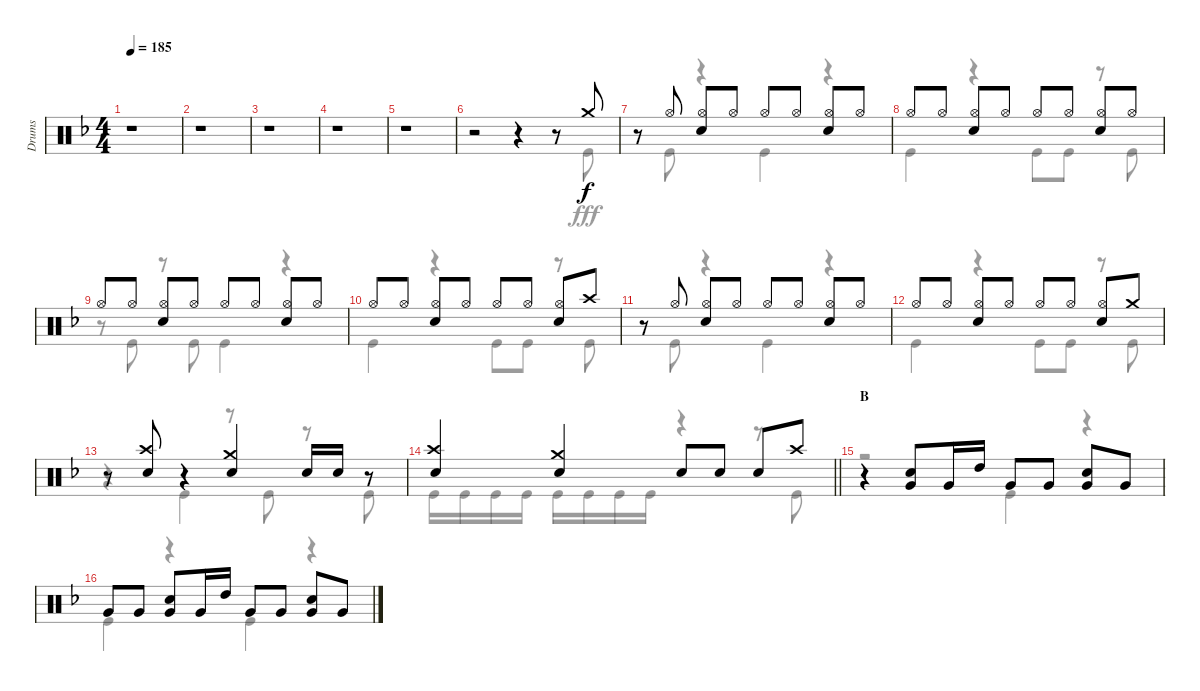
\track ("Drums" "Drums") {instrument percussion}
\staff {score}
\articulation defaults
\voice
\ts (4 4)
\tempo 185
\clef neutral
\ks f
r.1{dy f} |
r.1 |
r.1 |
r.1 |
r.1 |
r.2 r.4 r.8 "Crash medium (hit)".8 |
r.8 "Hi-Hat (open)".8 ("Hi-Hat (open)" "Snare (hit) 2").8 "Hi-Hat (open)".8 "Hi-Hat (open)".8 "Hi-Hat (open)".8 ("Hi-Hat (open)" "Snare (hit) 2").8 "Hi-Hat (open)".8 |
"Hi-Hat (open)".8 "Hi-Hat (open)".8 ("Hi-Hat (open)" "Snare (hit) 2").8 "Hi-Hat (open)".8 "Hi-Hat (open)".8 "Hi-Hat (open)".8 ("Hi-Hat (open)" "Snare (hit) 2").8 "Hi-Hat (open)".8 |
"Hi-Hat (open)".8 "Hi-Hat (open)".8 ("Hi-Hat (open)" "Snare (hit) 2").8 "Hi-Hat (open)".8 "Hi-Hat (open)".8 "Hi-Hat (open)".8 ("Hi-Hat (open)" "Snare (hit) 2").8 "Hi-Hat (open)".8 |
"Hi-Hat (open)".8 "Hi-Hat (open)".8 ("Hi-Hat (open)" "Snare (hit) 2").8 "Hi-Hat (open)".8 "Hi-Hat (open)".8 "Hi-Hat (open)".8 ("Hi-Hat (open)" "Snare (hit) 2").8 "Crash high (hit)".8 |
r.8 "Hi-Hat (open)".8 ("Hi-Hat (open)" "Snare (hit) 2").8 "Hi-Hat (open)".8 "Hi-Hat (open)".8 "Hi-Hat (open)".8 ("Hi-Hat (open)" "Snare (hit) 2").8 "Hi-Hat (open)".8 |
"Hi-Hat (open)".8 "Hi-Hat (open)".8 ("Hi-Hat (open)" "Snare (hit) 2").8 "Hi-Hat (open)".8 "Hi-Hat (open)".8 "Hi-Hat (open)".8 ("Hi-Hat (open)" "Snare (hit) 2").8 "Crash medium (hit)".8 |
r.8 ("Crash high (hit)" "Snare (hit) 2").8 r.4 ("Crash medium (hit)" "Snare (hit) 2").4 "Snare (hit) 2".16 "Snare (hit) 2".16 r.8 |
\barLineRight lightlight
("Crash high (hit)" "Snare (hit) 2").4 ("Crash medium (hit)" "Snare (hit) 2").4 "Snare (hit) 2".8 "Snare (hit) 2".8 "Snare (hit) 2".8 "Crash high (hit)".8 |
\section ("" "B")
r.4 ("Snare (hit) 2" "Very Low Tom (hit)").8 "Very Low Tom (hit)".16 "High Tom (hit)".16 "Very Low Tom (hit)".8 "Very Low Tom (hit)".8 ("Snare (hit) 2" "Very Low Tom (hit)").8 "Very Low Tom (hit)".8 |
"Very Low Tom (hit)".8 "Very Low Tom (hit)".8 ("Snare (hit) 2" "Very Low Tom (hit)").8 "Very Low Tom (hit)".16 "High Tom (hit)".16 "Very Low Tom (hit)".8 "Very Low Tom (hit)".8 ("Snare (hit) 2" "Very Low Tom (hit)").8 "Very Low Tom (hit)".8
\voice
\clef neutral
\ottava regular
\simile none
\ks f
r.1{dy fff} |
r.1 |
r.1 |
r.1 |
r.1 |
r.2 r.4 r.8 "Kick (hit)".8 |
r.8 "Kick (hit)".8 r.4 "Kick (hit)".4 r.4 |
"Kick (hit)".4 r.4 "Kick (hit)".8 "Kick (hit)".8 r.8 "Kick (hit)".8 |
r.8 "Kick (hit)".8 r.8 "Kick (hit)".8 "Kick (hit)".4 r.4 |
"Kick (hit)".4 r.4 "Kick (hit)".8 "Kick (hit)".8 r.8 "Kick (hit)".8 |
r.8 "Kick (hit)".8 r.4 "Kick (hit)".4 r.4 |
"Kick (hit)".4 r.4 "Kick (hit)".8 "Kick (hit)".8 r.8 "Kick (hit)".8 |
r.4 "Kick (hit)".4 r.8 "Kick (hit)".8 r.8 "Kick (hit)".8 |
\barLineRight lightlight "Kick (hit)".16 "Kick (hit)".16 "Kick (hit)".16 "Kick (hit)".16 "Kick (hit)".16 "Kick (hit)".16 "Kick (hit)".16 "Kick (hit)".16
r.4 r.8 "Kick (hit)".8 |
r.2 "Kick (hit)".4 r.4 |
"Kick (hit)".4 r.4 "Kick (hit)".4 r.4
